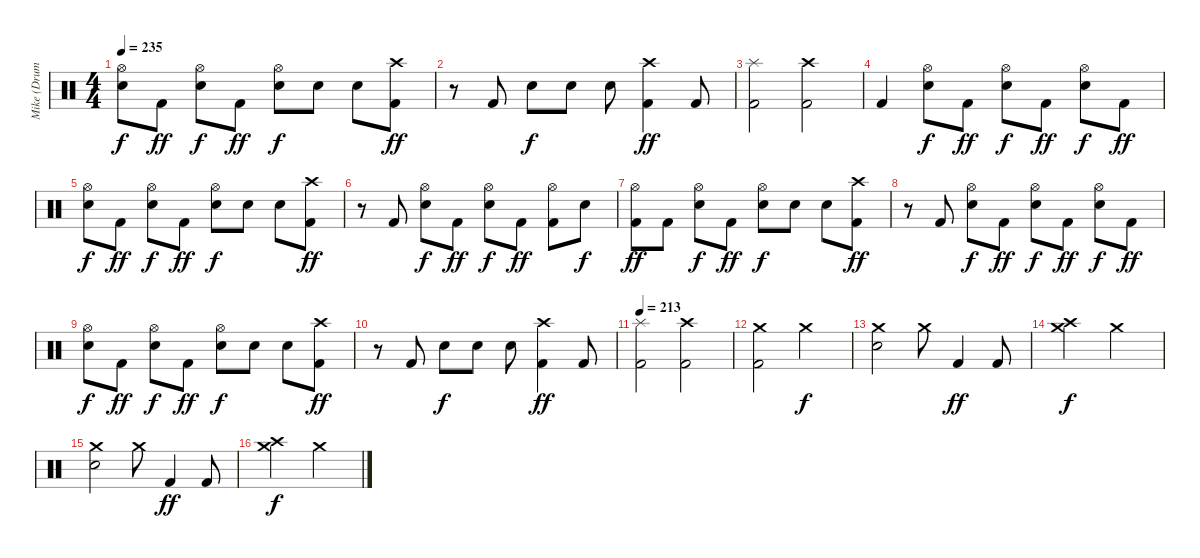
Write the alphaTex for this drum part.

\track ("Mike (Drums)" "Mike (Drum") {instrument percussion}
\staff {score}
\articulation defaults
\ts (4 4)
\tempo 235
\clef neutral
\ks c
("Hi-Hat (open)" "Electric Snare (hit)").8{dy f} "Kick (hit) 2".8{dy ff} ("Hi-Hat (open)" "Electric Snare (hit)").8{dy f} "Kick (hit) 2".8{dy ff} ("Hi-Hat (open)" "Electric Snare (hit)").8{dy f} "Electric Snare (hit)".8 "Electric Snare (hit)".8 ("Crash high (hit)" "Kick (hit) 2").8{dy ff} |
r.8 "Kick (hit) 2".8 "Electric Snare (hit)".8{dy f} "Electric Snare (hit)".8 "Electric Snare (hit)".8 ("Crash high (hit)" "Kick (hit) 2").4{dy ff} "Kick (hit) 2".8 |
("Splash (hit)" "Kick (hit) 2").2 ("Crash high (hit)" "Kick (hit) 2").2 |
"Kick (hit) 2".4 ("Hi-Hat (open)" "Electric Snare (hit)").8{dy f} "Kick (hit) 2".8{dy ff} ("Hi-Hat (open)" "Electric Snare (hit)").8{dy f} "Kick (hit) 2".8{dy ff} ("Hi-Hat (open)" "Electric Snare (hit)").8{dy f} "Kick (hit) 2".8{dy ff} |
("Hi-Hat (open)" "Electric Snare (hit)").8{dy f} "Kick (hit) 2".8{dy ff} ("Hi-Hat (open)" "Electric Snare (hit)").8{dy f} "Kick (hit) 2".8{dy ff} ("Hi-Hat (open)" "Electric Snare (hit)").8{dy f} "Electric Snare (hit)".8 "Electric Snare (hit)".8 ("Crash high (hit)" "Kick (hit) 2").8{dy ff} |
r.8 "Kick (hit) 2".8 ("Hi-Hat (open)" "Electric Snare (hit)").8{dy f} "Kick (hit) 2".8{dy ff} ("Hi-Hat (open)" "Electric Snare (hit)").8{dy f} "Kick (hit) 2".8{dy ff} ("Hi-Hat (open)" "Kick (hit) 2").8 "Electric Snare (hit)".8{dy f} |
("Hi-Hat (open)" "Kick (hit) 2").8{dy ff} "Kick (hit) 2".8 ("Hi-Hat (open)" "Electric Snare (hit)").8{dy f} "Kick (hit) 2".8{dy ff} ("Hi-Hat (open)" "Electric Snare (hit)").8{dy f} "Electric Snare (hit)".8 "Electric Snare (hit)".8 ("Crash high (hit)" "Kick (hit) 2").8{dy ff} |
r.8 "Kick (hit) 2".8 ("Hi-Hat (open)" "Electric Snare (hit)").8{dy f} "Kick (hit) 2".8{dy ff} ("Hi-Hat (open)" "Electric Snare (hit)").8{dy f} "Kick (hit) 2".8{dy ff} ("Hi-Hat (open)" "Electric Snare (hit)").8{dy f} "Kick (hit) 2".8{dy ff} |
("Hi-Hat (open)" "Electric Snare (hit)").8{dy f} "Kick (hit) 2".8{dy ff} ("Hi-Hat (open)" "Electric Snare (hit)").8{dy f} "Kick (hit) 2".8{dy ff} ("Hi-Hat (open)" "Electric Snare (hit)").8{dy f} "Electric Snare (hit)".8 "Electric Snare (hit)".8 ("Crash high (hit)" "Kick (hit) 2").8{dy ff} |
r.8 "Kick (hit) 2".8 "Electric Snare (hit)".8{dy f} "Electric Snare (hit)".8 "Electric Snare (hit)".8 ("Crash high (hit)" "Kick (hit) 2").4{dy ff} "Kick (hit) 2".8 |
\tempo 213
("Splash (hit)" "Kick (hit) 2").2 ("Crash high (hit)" "Kick (hit) 2").2 |
("Crash medium (hit)" "Kick (hit) 2").2 "Crash medium (hit)".2{dy f} |
("Crash medium (hit)" "Electric Snare (hit)").2 "Crash medium (hit)".8 "Kick (hit) 2".4{dy ff} "Kick (hit) 2".8 |
("Crash medium (hit)" "Crash high (hit)").2{dy f} "Crash medium (hit)".2 |
("Crash medium (hit)" "Electric Snare (hit)").2 "Crash medium (hit)".8 "Kick (hit) 2".4{dy ff} "Kick (hit) 2".8 |
("Crash medium (hit)" "Crash high (hit)").2{dy f} "Crash medium (hit)".2
